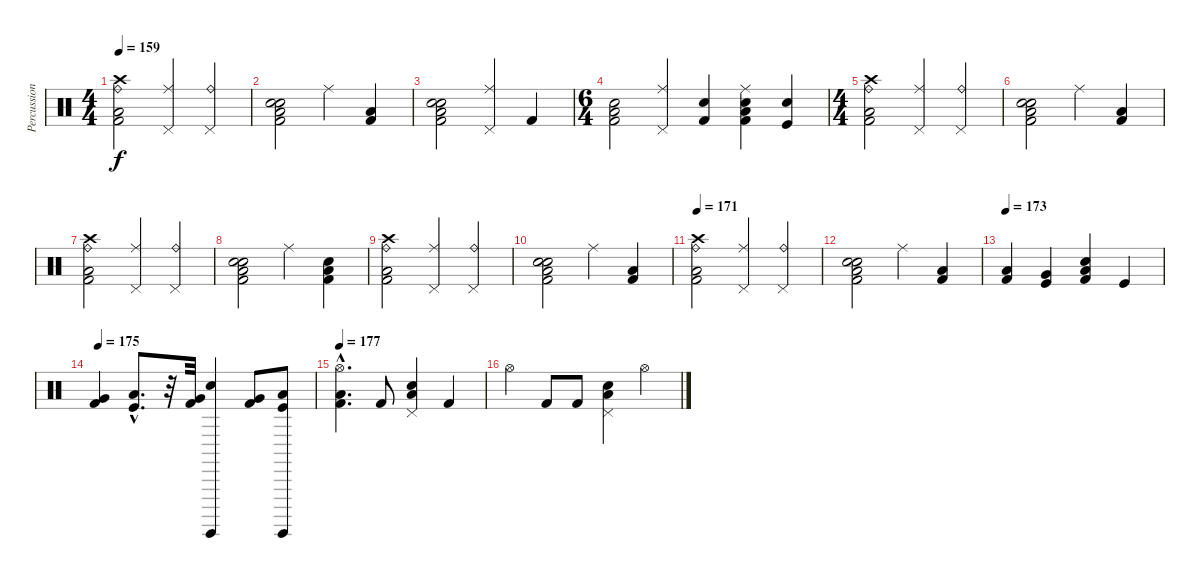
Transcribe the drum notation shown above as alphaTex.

\track ("Percussions" "Percussion") {instrument percussion}
\staff {score}
\articulation defaults
\ts (4 4)
\tempo 159
\clef neutral
\ks c
("Ride (bell)" "Crash high (hit)" "Low Tom (hit)" "Kick (hit) 2").2{dy f} ("Ride (middle)" "Pedal Hi-Hat (hit)").4 ("Pedal Hi-Hat (hit)" "Ride (bell)").4 |
("Kick (hit) 2" "Low Tom (hit)" "Snare (hit) 2" "Electric Snare (hit)").2 "Ride (middle)".4 ("Low Tom (hit)" "Kick (hit) 2").4 |
("Snare (hit) 2" "Electric Snare (hit)" "Low Tom (hit)" "Kick (hit) 2").2 ("Ride (middle)" "Pedal Hi-Hat (hit)").4 "Kick (hit) 2".4 |
\ts (6 4)
("Kick (hit) 2" "Low Tom (hit)" "Snare (hit) 2").2 ("Pedal Hi-Hat (hit)" "Ride (middle)").4 ("Electric Snare (hit)" "Kick (hit) 2").4 ("Kick (hit) 2" "Low Tom (hit)" "Snare (hit) 2" "Ride (middle)").4 ("Electric Snare (hit)" "Kick (hit)").4 |
\ts (4 4)
("Ride (bell)" "Crash high (hit)" "Low Tom (hit)" "Kick (hit) 2").2 ("Ride (middle)" "Pedal Hi-Hat (hit)").4 ("Pedal Hi-Hat (hit)" "Ride (bell)").4 |
("Kick (hit) 2" "Low Tom (hit)" "Snare (hit) 2" "Electric Snare (hit)").2 "Ride (middle)".4 ("Low Tom (hit)" "Kick (hit) 2").4 |
("Ride (bell)" "Crash high (hit)" "Low Tom (hit)" "Kick (hit) 2").2 ("Ride (middle)" "Pedal Hi-Hat (hit)").4 ("Pedal Hi-Hat (hit)" "Ride (bell)").4 |
("Kick (hit) 2" "Low Tom (hit)" "Snare (hit) 2" "Electric Snare (hit)").2 "Ride (middle)".4 ("Snare (hit) 2" "Low Tom (hit)" "Kick (hit) 2").4 |
("Ride (bell)" "Crash high (hit)" "Low Tom (hit)" "Kick (hit) 2").2 ("Ride (middle)" "Pedal Hi-Hat (hit)").4 ("Pedal Hi-Hat (hit)" "Ride (bell)").4 |
("Kick (hit) 2" "Low Tom (hit)" "Snare (hit) 2" "Electric Snare (hit)").2 "Ride (middle)".4 ("Low Tom (hit)" "Kick (hit) 2").4 |
\tempo 171
("Ride (bell)" "Crash high (hit)" "Low Tom (hit)" "Kick (hit) 2").2 ("Ride (middle)" "Pedal Hi-Hat (hit)").4 ("Pedal Hi-Hat (hit)" "Ride (bell)").4 |
("Kick (hit) 2" "Low Tom (hit)" "Snare (hit) 2" "Electric Snare (hit)").2 "Ride (middle)".4 ("Low Tom (hit)" "Kick (hit) 2").4 |
\tempo 173
("Kick (hit) 2" "Low Tom (hit)").4 ("Kick (hit)" "Very Low Tom (hit)").4 ("Electric Snare (hit)" "Kick (hit) 2" "Low Floor Tom (hit)").4 "Kick (hit)".4 |
\tempo 175
("Kick (hit) 2" "Very Low Tom (hit)").4 ("Kick (hit)"{hac} "Low Tom (hit)"{hac}).8{d} r.32 ("Kick (hit) 2" "Very Low Tom (hit)").32 ("Electric Snare (hit)" "Surdo (hit)").4 ("Kick (hit) 2" "Very Low Tom (hit)").8 ("Kick (hit)" "Low Tom (hit)" "Surdo (hit)").8 |
\tempo 177
("Low Tom (hit)"{hac} "Hi-Hat (open)"{hac} "Kick (hit) 2"{hac}).4{d} "Kick (hit) 2".8 ("Pedal Hi-Hat (hit)" "Snare (hit) 2" "Low Floor Tom (hit)").4 "Kick (hit) 2".4 |
"Hi-Hat (open)".4 "Kick (hit) 2".8 "Kick (hit) 2".8 ("Low Tom (hit)" "Snare (hit) 2" "Pedal Hi-Hat (hit)").4 "Hi-Hat (open)".4
